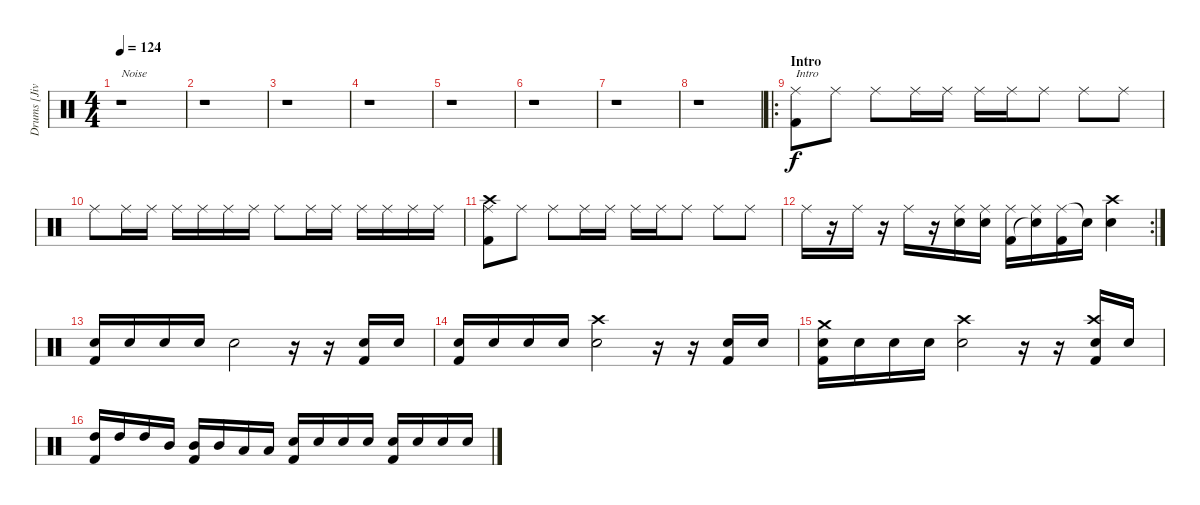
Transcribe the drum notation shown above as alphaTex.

\track ("Drums [Jivarp]" "Drums [Jiv") {instrument percussion}
\staff {score}
\articulation defaults
\ts (4 4)
\tempo 124
\clef neutral
\ks c
r.1{txt "Noise" dy f} |
r.1 |
r.1 |
r.1 |
r.1 |
r.1 |
r.1 |
r.1 |
\ro
\section ("" "Intro")
("Ride (middle)" "Kick (hit) 2").8{txt "Intro"} "Ride (middle)".8 "Ride (middle)".8 "Ride (middle)".16 "Ride (middle)".16 "Ride (middle)".16 "Ride (middle)".16 "Ride (middle)".8 "Ride (middle)".8 "Ride (middle)".8 |
"Ride (middle)".8 "Ride (middle)".16 "Ride (middle)".16 "Ride (middle)".16 "Ride (middle)".16 "Ride (middle)".16 "Ride (middle)".16 "Ride (middle)".8 "Ride (middle)".16 "Ride (middle)".16 "Ride (middle)".16 "Ride (middle)".16 "Ride (middle)".16 "Ride (middle)".16 |
("Ride (middle)" "Crash high (hit)" "Kick (hit) 2").8 "Ride (middle)".8 "Ride (middle)".8 "Ride (middle)".16 "Ride (middle)".16 "Ride (middle)".16 "Ride (middle)".16 "Ride (middle)".8 "Ride (middle)".8 "Ride (middle)".8 |
\rc 2 "Ride (middle)".16
r.16 "Ride (middle)".16 r.16 "Ride (middle)".16 r.16 ("Ride (middle)" "Electric Snare (hit)").16 ("Ride (middle)" "Electric Snare (hit)").16 ("Ride (middle)" "Kick (hit) 2").16 ("Ride (middle)" "Snare (hit)"{t}).16 ("Ride (middle)" "Kick (hit) 2").16 "Snare (hit)"{t}.16 ("Crash high (hit)" "Electric Snare (hit)").4 |
("Electric Snare (hit)" "Kick (hit) 2").16 "Electric Snare (hit)".16 "Electric Snare (hit)".16 "Electric Snare (hit)".16 "Electric Snare (hit)".2 r.16 r.16 ("Electric Snare (hit)" "Kick (hit) 2").16 "Electric Snare (hit)".16 |
("Electric Snare (hit)" "Kick (hit) 2").16 "Electric Snare (hit)".16 "Electric Snare (hit)".16 "Electric Snare (hit)".16 ("Crash high (hit)" "Electric Snare (hit)").2 r.16 r.16 ("Electric Snare (hit)" "Kick (hit) 2").16 "Electric Snare (hit)".16 |
("Crash medium (hit)" "Electric Snare (hit)" "Kick (hit) 2").16 "Electric Snare (hit)".16 "Electric Snare (hit)".16 "Electric Snare (hit)".16 ("Crash high (hit)" "Electric Snare (hit)").2 r.16 r.16 ("Crash high (hit)" "Electric Snare (hit)" "Kick (hit) 2").16 "Electric Snare (hit)".16 |
("High Tom (hit)" "Kick (hit) 2").16 "High Tom (hit)".16 "High Tom (hit)".16 "Mid Tom (hit)".16 ("Mid Tom (hit)" "Kick (hit) 2").16 "Mid Tom (hit)".16 "Low Tom (hit)".16 "Low Tom (hit)".16 ("Electric Snare (hit)" "Kick (hit) 2").16 "Electric Snare (hit)".16 "Electric Snare (hit)".16 "Electric Snare (hit)".16 ("Electric Snare (hit)" "Kick (hit) 2").16 "Electric Snare (hit)".16 "Electric Snare (hit)".16 "Electric Snare (hit)".16
